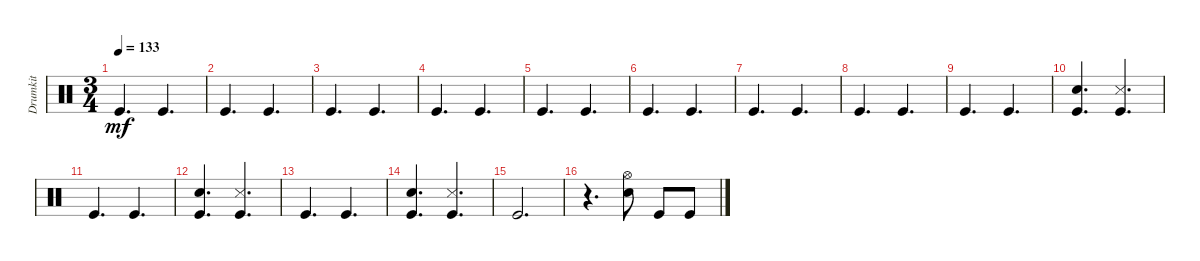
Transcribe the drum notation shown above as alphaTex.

\track ("Drumkit" "Drumkit") {instrument percussion}
\staff {score}
\articulation defaults
\ts (3 4)
\tempo 133
\clef neutral
\ks c "Kick (hit)".4{d dy mf} "Kick (hit)".4{d}
|
"Kick (hit)".4{d} "Kick (hit)".4{d} |
"Kick (hit)".4{d} "Kick (hit)".4{d} |
"Kick (hit)".4{d} "Kick (hit)".4{d} |
"Kick (hit)".4{d} "Kick (hit)".4{d} |
"Kick (hit)".4{d} "Kick (hit)".4{d} |
"Kick (hit)".4{d} "Kick (hit)".4{d} |
"Kick (hit)".4{d} "Kick (hit)".4{d} |
"Kick (hit)".4{d} "Kick (hit)".4{d} |
("Kick (hit)" "Snare (hit) 2").4{d} ("Kick (hit)" "Snare (side stick) 3").4{d} |
"Kick (hit)".4{d} "Kick (hit)".4{d} |
("Kick (hit)" "Snare (hit) 2").4{d} ("Kick (hit)" "Snare (side stick) 3").4{d} |
"Kick (hit)".4{d} "Kick (hit)".4{d} |
("Kick (hit)" "Snare (hit) 2").4{d} ("Kick (hit)" "Snare (side stick) 3").4{d} |
"Kick (hit)".2{d} |
r.4{d} ("Snare (hit) 2" "Hi-Hat (open)").8 "Kick (hit)".8 "Kick (hit)".8
